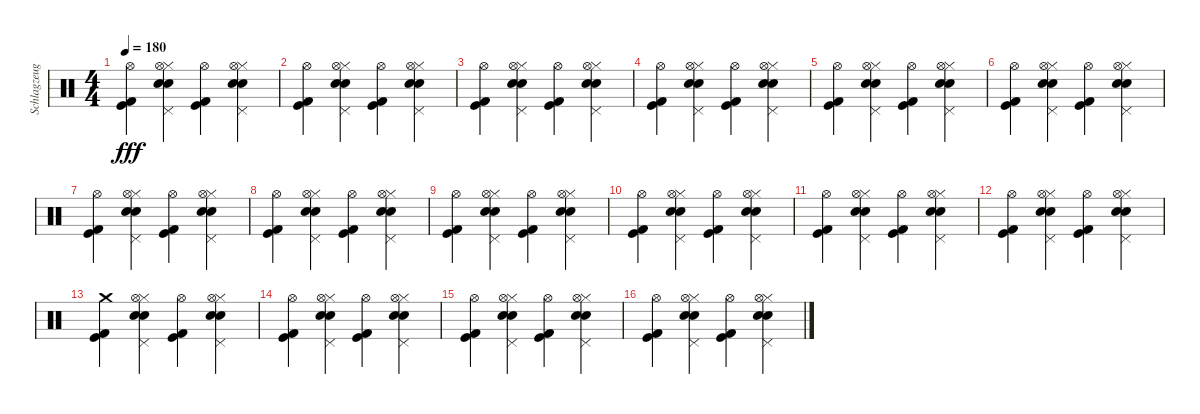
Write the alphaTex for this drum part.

\track ("Schlagzeug" "Schlagzeug") {instrument percussion}
\staff {score}
\articulation defaults
\ts (4 4)
\tempo 180
\clef neutral
\ks c
("Kick (hit)" "Kick (hit) 2" "Hi-Hat (open)").4{dy fff} ("Electric Snare (hit)" "Hi-Hat (closed)" "Snare (hit) 2" "Pedal Hi-Hat (hit)" "Hi-Hat (open)").4 ("Kick (hit)" "Kick (hit) 2" "Hi-Hat (open)").4 ("Electric Snare (hit)" "Hi-Hat (closed)" "Snare (hit) 2" "Pedal Hi-Hat (hit)" "Hi-Hat (open)").4 |
("Kick (hit)" "Kick (hit) 2" "Hi-Hat (open)").4 ("Electric Snare (hit)" "Hi-Hat (closed)" "Snare (hit) 2" "Pedal Hi-Hat (hit)" "Hi-Hat (open)").4 ("Kick (hit)" "Kick (hit) 2" "Hi-Hat (open)").4 ("Electric Snare (hit)" "Hi-Hat (closed)" "Snare (hit) 2" "Pedal Hi-Hat (hit)" "Hi-Hat (open)").4 |
("Kick (hit)" "Kick (hit) 2" "Hi-Hat (open)").4 ("Electric Snare (hit)" "Hi-Hat (closed)" "Snare (hit) 2" "Pedal Hi-Hat (hit)" "Hi-Hat (open)").4 ("Kick (hit)" "Kick (hit) 2" "Hi-Hat (open)").4 ("Electric Snare (hit)" "Hi-Hat (closed)" "Snare (hit) 2" "Pedal Hi-Hat (hit)" "Hi-Hat (open)").4 |
("Kick (hit)" "Kick (hit) 2" "Hi-Hat (open)").4 ("Electric Snare (hit)" "Hi-Hat (closed)" "Snare (hit) 2" "Pedal Hi-Hat (hit)" "Hi-Hat (open)").4 ("Kick (hit)" "Kick (hit) 2" "Hi-Hat (open)").4 ("Electric Snare (hit)" "Hi-Hat (closed)" "Snare (hit) 2" "Pedal Hi-Hat (hit)" "Hi-Hat (open)").4 |
("Kick (hit)" "Kick (hit) 2" "Hi-Hat (open)").4 ("Electric Snare (hit)" "Hi-Hat (closed)" "Snare (hit) 2" "Pedal Hi-Hat (hit)" "Hi-Hat (open)").4 ("Kick (hit)" "Kick (hit) 2" "Hi-Hat (open)").4 ("Electric Snare (hit)" "Hi-Hat (closed)" "Snare (hit) 2" "Pedal Hi-Hat (hit)" "Hi-Hat (open)").4 |
("Kick (hit)" "Kick (hit) 2" "Hi-Hat (open)").4 ("Electric Snare (hit)" "Hi-Hat (closed)" "Snare (hit) 2" "Pedal Hi-Hat (hit)" "Hi-Hat (open)").4 ("Kick (hit)" "Kick (hit) 2" "Hi-Hat (open)").4 ("Electric Snare (hit)" "Hi-Hat (closed)" "Snare (hit) 2" "Pedal Hi-Hat (hit)" "Hi-Hat (open)").4 |
("Kick (hit)" "Kick (hit) 2" "Hi-Hat (open)").4 ("Electric Snare (hit)" "Hi-Hat (closed)" "Snare (hit) 2" "Pedal Hi-Hat (hit)" "Hi-Hat (open)").4 ("Kick (hit)" "Kick (hit) 2" "Hi-Hat (open)").4 ("Electric Snare (hit)" "Hi-Hat (closed)" "Snare (hit) 2" "Pedal Hi-Hat (hit)" "Hi-Hat (open)").4 |
("Kick (hit)" "Kick (hit) 2" "Hi-Hat (open)").4 ("Electric Snare (hit)" "Hi-Hat (closed)" "Snare (hit) 2" "Pedal Hi-Hat (hit)" "Hi-Hat (open)").4 ("Kick (hit)" "Kick (hit) 2" "Hi-Hat (open)").4 ("Electric Snare (hit)" "Hi-Hat (closed)" "Snare (hit) 2" "Pedal Hi-Hat (hit)" "Hi-Hat (open)").4 |
("Kick (hit)" "Kick (hit) 2" "Hi-Hat (open)").4 ("Electric Snare (hit)" "Hi-Hat (closed)" "Snare (hit) 2" "Pedal Hi-Hat (hit)" "Hi-Hat (open)").4 ("Kick (hit)" "Kick (hit) 2" "Hi-Hat (open)").4 ("Electric Snare (hit)" "Hi-Hat (closed)" "Snare (hit) 2" "Pedal Hi-Hat (hit)" "Hi-Hat (open)").4 |
("Kick (hit)" "Kick (hit) 2" "Hi-Hat (open)").4 ("Electric Snare (hit)" "Hi-Hat (closed)" "Snare (hit) 2" "Pedal Hi-Hat (hit)" "Hi-Hat (open)").4 ("Kick (hit)" "Kick (hit) 2" "Hi-Hat (open)").4 ("Electric Snare (hit)" "Hi-Hat (closed)" "Snare (hit) 2" "Pedal Hi-Hat (hit)" "Hi-Hat (open)").4 |
("Kick (hit)" "Kick (hit) 2" "Hi-Hat (open)").4 ("Electric Snare (hit)" "Hi-Hat (closed)" "Snare (hit) 2" "Pedal Hi-Hat (hit)" "Hi-Hat (open)").4 ("Kick (hit)" "Kick (hit) 2" "Hi-Hat (open)").4 ("Electric Snare (hit)" "Hi-Hat (closed)" "Snare (hit) 2" "Pedal Hi-Hat (hit)" "Hi-Hat (open)").4 |
("Kick (hit)" "Kick (hit) 2" "Hi-Hat (open)").4 ("Electric Snare (hit)" "Hi-Hat (closed)" "Snare (hit) 2" "Pedal Hi-Hat (hit)" "Hi-Hat (open)").4 ("Kick (hit)" "Kick (hit) 2" "Hi-Hat (open)").4 ("Electric Snare (hit)" "Hi-Hat (closed)" "Snare (hit) 2" "Pedal Hi-Hat (hit)" "Hi-Hat (open)").4 |
("Kick (hit)" "Kick (hit) 2" "Crash medium (hit)").4 ("Electric Snare (hit)" "Hi-Hat (closed)" "Snare (hit) 2" "Pedal Hi-Hat (hit)" "Hi-Hat (open)").4 ("Kick (hit)" "Kick (hit) 2" "Hi-Hat (open)").4 ("Electric Snare (hit)" "Hi-Hat (closed)" "Snare (hit) 2" "Pedal Hi-Hat (hit)" "Hi-Hat (open)").4 |
("Kick (hit)" "Kick (hit) 2" "Hi-Hat (open)").4 ("Electric Snare (hit)" "Hi-Hat (closed)" "Snare (hit) 2" "Pedal Hi-Hat (hit)" "Hi-Hat (open)").4 ("Kick (hit)" "Kick (hit) 2" "Hi-Hat (open)").4 ("Electric Snare (hit)" "Hi-Hat (closed)" "Snare (hit) 2" "Pedal Hi-Hat (hit)" "Hi-Hat (open)").4 |
("Kick (hit)" "Kick (hit) 2" "Hi-Hat (open)").4 ("Electric Snare (hit)" "Hi-Hat (closed)" "Snare (hit) 2" "Pedal Hi-Hat (hit)" "Hi-Hat (open)").4 ("Kick (hit)" "Kick (hit) 2" "Hi-Hat (open)").4 ("Electric Snare (hit)" "Hi-Hat (closed)" "Snare (hit) 2" "Pedal Hi-Hat (hit)" "Hi-Hat (open)").4 |
("Kick (hit)" "Kick (hit) 2" "Hi-Hat (open)").4 ("Electric Snare (hit)" "Hi-Hat (closed)" "Snare (hit) 2" "Pedal Hi-Hat (hit)" "Hi-Hat (open)").4 ("Kick (hit)" "Kick (hit) 2" "Hi-Hat (open)").4 ("Electric Snare (hit)" "Hi-Hat (closed)" "Snare (hit) 2" "Pedal Hi-Hat (hit)" "Hi-Hat (open)").4
